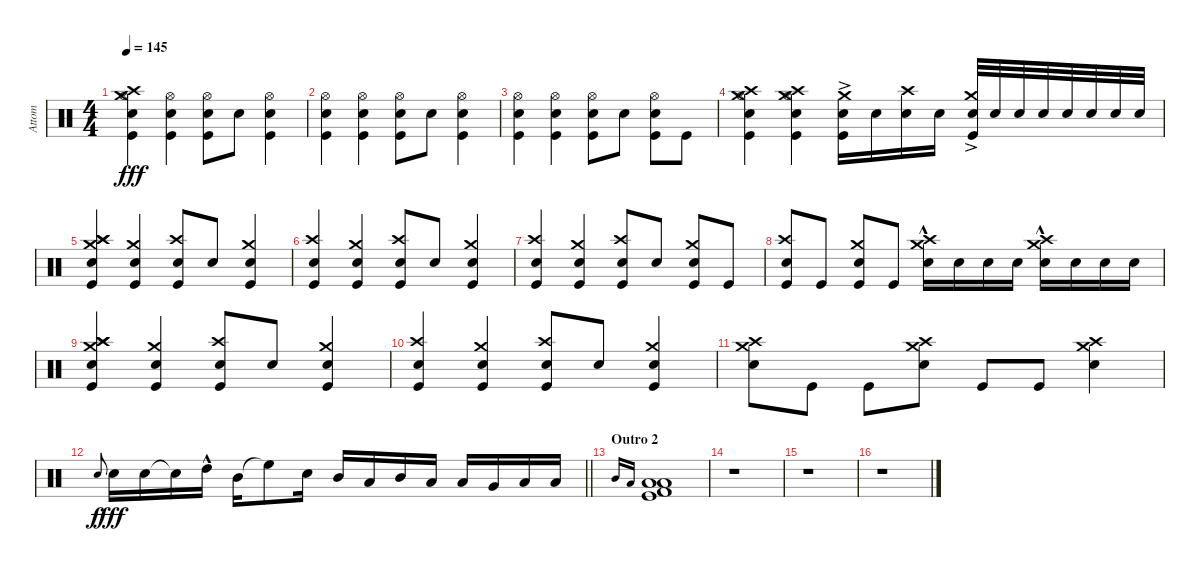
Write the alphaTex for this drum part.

\track ("Attom" "Attom") {instrument percussion}
\staff {score}
\articulation defaults
\ts (4 4)
\tempo 145
\clef neutral
\ks c
("Hi-Hat (open)" "Snare (hit) 2" "Crash high (hit)" "Crash medium (hit)" "Kick (hit)").4{dy fff} ("Hi-Hat (open)" "Snare (hit) 2" "Kick (hit)").4 ("Hi-Hat (open)" "Snare (hit) 2" "Kick (hit)").8 "Snare (hit) 2".8 ("Hi-Hat (open)" "Snare (hit) 2" "Kick (hit)").4 |
("Hi-Hat (open)" "Snare (hit) 2" "Kick (hit)").4 ("Hi-Hat (open)" "Snare (hit) 2" "Kick (hit)").4 ("Hi-Hat (open)" "Snare (hit) 2" "Kick (hit)").8 "Snare (hit) 2".8 ("Hi-Hat (open)" "Snare (hit) 2" "Kick (hit)").4 |
("Hi-Hat (open)" "Snare (hit) 2" "Kick (hit)").4 ("Hi-Hat (open)" "Snare (hit) 2" "Kick (hit)").4 ("Hi-Hat (open)" "Snare (hit) 2" "Kick (hit)").8 "Snare (hit) 2".8 ("Hi-Hat (open)" "Snare (hit) 2" "Kick (hit)").8 "Kick (hit)".8 |
("Crash high (hit)" "Hi-Hat (open)" "Snare (hit) 2" "Kick (hit)" "Crash medium (hit)").4 ("Crash high (hit)" "Hi-Hat (open)" "Snare (hit) 2" "Kick (hit)" "Crash medium (hit)").4 ("Crash medium (hit)" "Snare (hit) 2"{ac} "Kick (hit)").16 "Snare (hit) 2".16 ("Crash high (hit)" "Snare (hit) 2").16 "Snare (hit) 2".16 ("Crash medium (hit)" "Snare (hit) 2"{ac} "Kick (hit)").32 "Snare (hit) 2".32 "Snare (hit) 2".32 "Snare (hit) 2".32 "Snare (hit) 2".32 "Snare (hit) 2".32 "Snare (hit) 2".32 "Snare (hit) 2".32 |
("Crash high (hit)" "Snare (hit) 2" "Crash high (hit)" "Crash medium (hit)" "Kick (hit)").4 ("Crash medium (hit)" "Snare (hit) 2" "Kick (hit)").4 ("Crash high (hit)" "Snare (hit) 2" "Kick (hit)").8 "Snare (hit) 2".8 ("Crash medium (hit)" "Snare (hit) 2" "Kick (hit)").4 |
("Crash high (hit)" "Snare (hit) 2" "Kick (hit)").4 ("Crash medium (hit)" "Snare (hit) 2" "Kick (hit)").4 ("Crash high (hit)" "Snare (hit) 2" "Kick (hit)").8 "Snare (hit) 2".8 ("Crash medium (hit)" "Snare (hit) 2" "Kick (hit)").4 |
("Crash high (hit)" "Snare (hit) 2" "Kick (hit)").4 ("Crash medium (hit)" "Snare (hit) 2" "Kick (hit)").4 ("Crash high (hit)" "Snare (hit) 2" "Kick (hit)").8 "Snare (hit) 2".8 ("Crash medium (hit)" "Snare (hit) 2" "Kick (hit)").8 "Kick (hit)".8 |
("Crash high (hit)" "Snare (hit) 2" "Kick (hit)").8 "Kick (hit)".8 ("Crash medium (hit)" "Snare (hit) 2" "Kick (hit)").8 "Kick (hit)".8 ("Crash medium (hit)" "Crash high (hit)" "Snare (hit) 2"{hac}).16 "Snare (hit) 2".16 "Snare (hit) 2".16 "Snare (hit) 2".16 ("Crash medium (hit)" "Crash high (hit)" "Snare (hit) 2"{hac}).16 "Snare (hit) 2".16 "Snare (hit) 2".16 "Snare (hit) 2".16 |
("Crash high (hit)" "Snare (hit) 2" "Crash high (hit)" "Crash medium (hit)" "Kick (hit)").4 ("Crash medium (hit)" "Snare (hit) 2" "Kick (hit)").4 ("Crash high (hit)" "Snare (hit) 2" "Kick (hit)").8 "Snare (hit) 2".8 ("Crash medium (hit)" "Snare (hit) 2" "Kick (hit)").4 |
("Crash high (hit)" "Snare (hit) 2" "Kick (hit)").4 ("Crash medium (hit)" "Snare (hit) 2" "Kick (hit)").4 ("Crash high (hit)" "Snare (hit) 2" "Kick (hit)").8 "Snare (hit) 2".8 ("Crash medium (hit)" "Snare (hit) 2" "Kick (hit)").4 |
("Crash high (hit)" "Snare (hit) 2" "Crash medium (hit)").8 "Kick (hit)".8 "Kick (hit)".8 ("Crash medium (hit)" "Crash high (hit)" "Snare (hit) 2").8 "Kick (hit)".8 "Kick (hit)".8 ("Snare (hit) 2" "Crash medium (hit)" "Crash high (hit)").4 |
\barLineRight lightlight "Snare (hit) 2".8{gr onbeat dy f} "Snare (hit) 2".16{dy fff} "Snare (hit) 2".16 "Snare (hit) 2"{t}.16 "High Tom (hit)"{hac}.16 "Mid Tom (hit)".16 "High Floor Tom (hit)"{t}.8 "Snare (hit) 2".16 "Mid Tom (hit)".16 "Low Tom (hit)".16 "Mid Tom (hit)".16 "Low Tom (hit)".16 "Low Tom (hit)".16 "Very Low Tom (hit)".16 "Low Floor Tom (hit)".16 "Low Floor Tom (hit)".16
|
\section ("" "Outro 2")
"Mid Tom (hit)".16{gr onbeat} "Low Floor Tom (hit)".16{gr onbeat} ("Low Floor Tom (hit)" "Low Floor Tom (hit)" "Kick (hit)" "Kick (hit) 2").1 |
r.1 |
r.1 |
r.1
